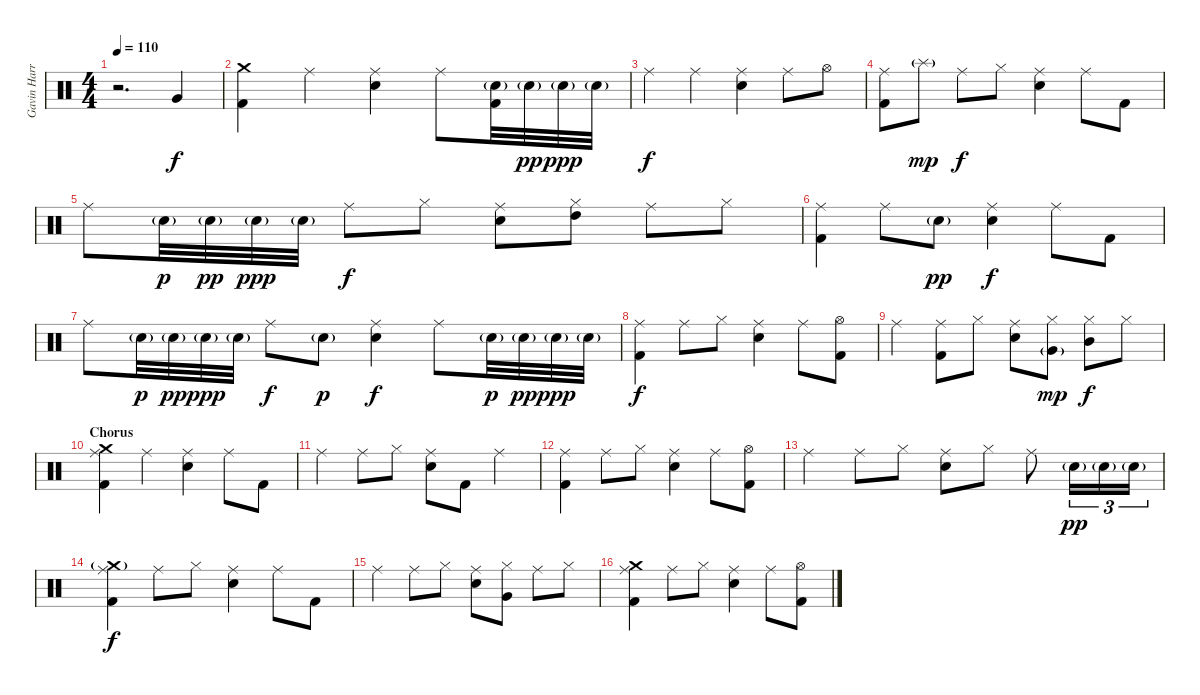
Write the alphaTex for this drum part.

\track ("Gavin Harrison - Drums" "Gavin Harr") {instrument percussion}
\staff {score}
\articulation defaults
\ts (4 4)
\tempo 110
\clef neutral
\ks c
r.2{d dy f} "Very Low Tom (hit)".4 |
("Crash medium (hit)" "Kick (hit) 2").4 "Ride (middle)".4 ("Ride (middle)" "Electric Snare (hit)").4 "Ride (middle)".8 ("Electric Snare (hit)"{g} "Kick (hit) 2").32 "Electric Snare (hit)"{g}.32{dy pp} "Electric Snare (hit)"{g}.32{dy ppp} "Electric Snare (hit)"{g}.32 |
"Ride (middle)".4{dy f} "Ride (middle)".4 ("Ride (middle)" "Electric Snare (hit)").4 "Ride (middle)".8 "Hi-Hat (open)".8 |
("Ride (middle)" "Kick (hit) 2").8 "Splash (hit)"{g}.8{dy mp} "Ride (middle)".8{dy f} "Hi-Hat (closed)".8 ("Ride (middle)" "Electric Snare (hit)").4 "Ride (middle)".8 "Kick (hit) 2".8 |
"Ride (middle)".8 "Electric Snare (hit)"{g}.32{dy p} "Electric Snare (hit)"{g}.32{dy pp} "Electric Snare (hit)"{g}.32{dy ppp} "Electric Snare (hit)"{g}.32 "Ride (middle)".8{dy f} "Hi-Hat (closed)".8 ("Ride (middle)" "Electric Snare (hit)").8 ("Hi-Hat (closed)" "High Tom (hit)").8 "Ride (middle)".8 "Hi-Hat (closed)".8 |
("Ride (middle)" "Kick (hit) 2").4 "Ride (middle)".8 "Electric Snare (hit)"{g}.8{dy pp} ("Ride (middle)" "Electric Snare (hit)").4{dy f} "Ride (middle)".8 "Kick (hit) 2".8 |
"Ride (middle)".8 "Electric Snare (hit)"{g}.32{dy p} "Electric Snare (hit)"{g}.32{dy pp} "Electric Snare (hit)"{g}.32{dy ppp} "Electric Snare (hit)"{g}.32 "Ride (middle)".8{dy f} "Electric Snare (hit)"{g}.8{dy p} ("Ride (middle)" "Electric Snare (hit)").4{dy f} "Ride (middle)".8 "Electric Snare (hit)"{g}.32{dy p} "Electric Snare (hit)"{g}.32{dy pp} "Electric Snare (hit)"{g}.32{dy ppp} "Electric Snare (hit)"{g}.32 |
("Ride (middle)" "Kick (hit) 2").4{dy f} "Ride (middle)".8 "Hi-Hat (closed)".8 ("Ride (middle)" "Electric Snare (hit)").4 "Ride (middle)".8 ("Hi-Hat (open)" "Kick (hit) 2").8 |
"Ride (middle)".4 ("Ride (middle)" "Kick (hit) 2").8 "Hi-Hat (closed)".8 ("Ride (middle)" "Electric Snare (hit)").8 ("Hi-Hat (closed)" "Very Low Tom (hit)"{g}).8{dy mp} ("Hi-Hat (closed)" "Mid Tom (hit)").8{dy f} "Hi-Hat (closed)".8 |
\section ("" "Chorus")
("Ride (middle)" "Crash medium (hit)" "Kick (hit) 2").4 "Ride (middle)".4 ("Ride (middle)" "Electric Snare (hit)").4 "Ride (middle)".8 "Kick (hit) 2".8 |
"Ride (middle)".4 "Ride (middle)".8 "Hi-Hat (closed)".8 ("Ride (middle)" "Electric Snare (hit)").8 "Kick (hit) 2".8 "Ride (middle)".4 |
("Ride (middle)" "Kick (hit) 2").4 "Ride (middle)".8 "Hi-Hat (closed)".8 ("Ride (middle)" "Electric Snare (hit)").4 "Ride (middle)".8 ("Hi-Hat (open)" "Kick (hit) 2").8 |
"Ride (middle)".4 "Ride (middle)".8 "Hi-Hat (closed)".8 ("Ride (middle)" "Electric Snare (hit)").8 "Hi-Hat (closed)".8 "Ride (middle)".8 "Electric Snare (hit)"{g}.16{tu (3 2) dy pp} "Electric Snare (hit)"{g}.16{tu (3 2)} "Electric Snare (hit)"{g}.16{tu (3 2)} |
("Ride (middle)" "Crash medium (hit)"{g} "Kick (hit) 2").4{dy f} "Ride (middle)".8 "Hi-Hat (closed)".8 ("Ride (middle)" "Electric Snare (hit)").4 "Ride (middle)".8 "Kick (hit) 2".8 |
"Ride (middle)".4 "Ride (middle)".8 "Hi-Hat (closed)".8 ("Ride (middle)" "Electric Snare (hit)").8 ("Hi-Hat (closed)" "Very Low Tom (hit)").8 "Ride (middle)".8 "Hi-Hat (closed)".8 |
("Ride (middle)" "Crash medium (hit)" "Kick (hit) 2").4 "Ride (middle)".8 "Hi-Hat (closed)".8 ("Ride (middle)" "Electric Snare (hit)").4 "Ride (middle)".8 ("Hi-Hat (open)" "Kick (hit) 2").8
